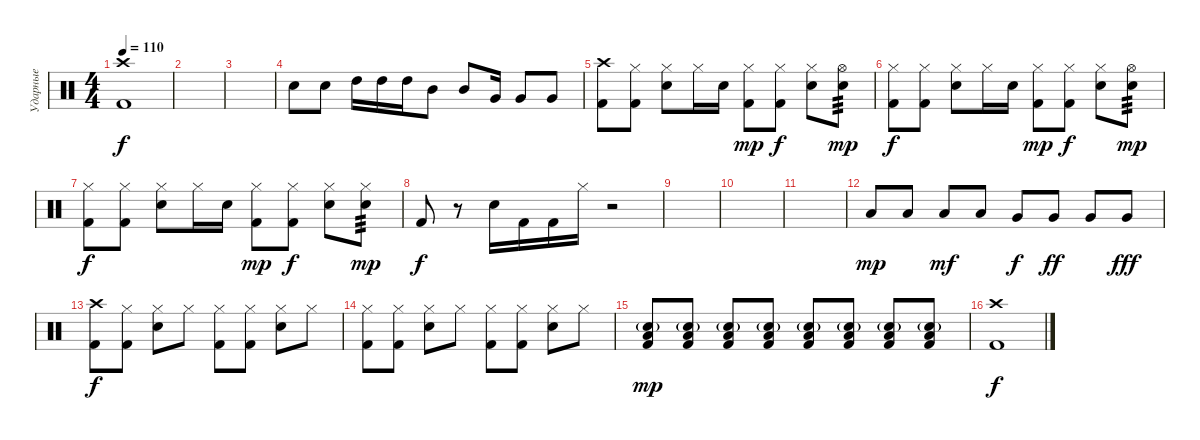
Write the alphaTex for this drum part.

\track ("Ударные" "Ударные") {instrument percussion}
\staff {score}
\articulation defaults
\ts (4 4)
\tempo 110
\clef neutral
\ks c
("Crash high (hit)" "Kick (hit) 2").1{dy f} |
|
|
"Snare (hit) 2".8 "Snare (hit) 2".8 "High Tom (hit)".16 "High Tom (hit)".16 "High Tom (hit)".16 "Mid Tom (hit)".8 "Mid Tom (hit)".8 "Very Low Tom (hit)".16 "Very Low Tom (hit)".8 "Very Low Tom (hit)".8 |
("Crash high (hit)" "Kick (hit) 2").8 ("Kick (hit) 2" "Hi-Hat (closed)").8 ("Snare (hit) 2" "Hi-Hat (closed)").8 "Hi-Hat (closed)".16 "Snare (hit) 2".16 ("Kick (hit) 2" "Hi-Hat (closed)").8{dy mp} ("Kick (hit) 2" "Hi-Hat (closed)").8{dy f} ("Snare (hit) 2" "Hi-Hat (closed)").8 ("Snare (hit) 2" "Hi-Hat (open)").8{tp 3 dy mp} |
("Kick (hit) 2" "Hi-Hat (closed)").8{dy f} ("Kick (hit) 2" "Hi-Hat (closed)").8 ("Snare (hit) 2" "Hi-Hat (closed)").8 "Hi-Hat (closed)".16 "Snare (hit) 2".16 ("Kick (hit) 2" "Hi-Hat (closed)").8{dy mp} ("Kick (hit) 2" "Hi-Hat (closed)").8{dy f} ("Snare (hit) 2" "Hi-Hat (closed)").8 ("Snare (hit) 2" "Hi-Hat (open)").8{tp 3 dy mp} |
("Kick (hit) 2" "Hi-Hat (closed)").8{dy f} ("Kick (hit) 2" "Hi-Hat (closed)").8 ("Snare (hit) 2" "Hi-Hat (closed)").8 "Hi-Hat (closed)".16 "Snare (hit) 2".16 ("Kick (hit) 2" "Hi-Hat (closed)").8{dy mp} ("Kick (hit) 2" "Hi-Hat (closed)").8{dy f} ("Snare (hit) 2" "Hi-Hat (closed)").8 ("Snare (hit) 2" "Hi-Hat (closed)").8{tp 3 dy mp} |
"Kick (hit) 2".8{dy f} r.8 "Snare (hit) 2".16 "Kick (hit) 2".16 "Kick (hit) 2".16 "Hi-Hat (closed)".16 r.2 |
|
|
|
"Low Tom (hit)".8{dy mp} "Low Tom (hit)".8 "Low Tom (hit)".8{dy mf} "Low Tom (hit)".8 "Very Low Tom (hit)".8{dy f} "Very Low Tom (hit)".8{dy ff} "Very Low Tom (hit)".8 "Very Low Tom (hit)".8{dy fff} |
("Kick (hit) 2" "Crash high (hit)").8{dy f} ("Kick (hit) 2" "Hi-Hat (closed)").8 ("Snare (hit) 2" "Hi-Hat (closed)").8 "Hi-Hat (closed)".8 ("Kick (hit) 2" "Hi-Hat (closed)").8 ("Kick (hit) 2" "Hi-Hat (closed)").8 ("Snare (hit) 2" "Hi-Hat (closed)").8 "Hi-Hat (closed)".8 |
("Kick (hit) 2" "Hi-Hat (closed)").8 ("Kick (hit) 2" "Hi-Hat (closed)").8 ("Snare (hit) 2" "Hi-Hat (closed)").8 "Hi-Hat (closed)".8 ("Kick (hit) 2" "Hi-Hat (closed)").8 ("Kick (hit) 2" "Hi-Hat (closed)").8 ("Snare (hit) 2" "Hi-Hat (closed)").8 "Hi-Hat (closed)".8 |
("Snare (hit) 2"{g} "Low Floor Tom (hit)" "Kick (hit) 2").8{dy mp} ("Snare (hit) 2"{g} "Low Floor Tom (hit)" "Kick (hit) 2").8 ("Snare (hit) 2"{g} "Low Floor Tom (hit)" "Kick (hit) 2").8 ("Snare (hit) 2"{g} "Low Floor Tom (hit)" "Kick (hit) 2").8 ("Snare (hit) 2"{g} "Low Floor Tom (hit)" "Kick (hit) 2").8 ("Snare (hit) 2"{g} "Low Floor Tom (hit)" "Kick (hit) 2").8 ("Snare (hit) 2"{g} "Low Floor Tom (hit)" "Kick (hit) 2").8 ("Snare (hit) 2"{g} "Low Floor Tom (hit)" "Kick (hit) 2").8 |
("Kick (hit) 2" "Crash high (hit)").1{dy f}
